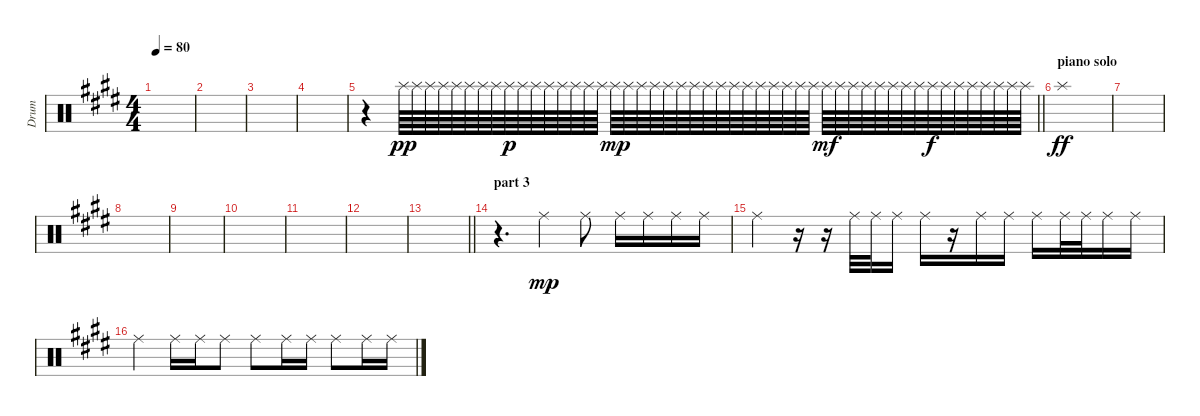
\track ("Drum" "Drum") {instrument percussion}
\staff {score}
\articulation defaults
\ts (4 4)
\tempo 80
\clef neutral
\ks e
|
|
|
|
\barLineRight lightlight
r.4 "Splash (hit)".64{dy pp} "Splash (hit)".64 "Splash (hit)".64 "Splash (hit)".64 "Splash (hit)".64 "Splash (hit)".64 "Splash (hit)".64 "Splash (hit)".64 "Splash (hit)".64{dy p} "Splash (hit)".64 "Splash (hit)".64 "Splash (hit)".64 "Splash (hit)".64 "Splash (hit)".64 "Splash (hit)".64 "Splash (hit)".64 "Splash (hit)".64{dy mp} "Splash (hit)".64 "Splash (hit)".64 "Splash (hit)".64 "Splash (hit)".64 "Splash (hit)".64 "Splash (hit)".64 "Splash (hit)".64 "Splash (hit)".64 "Splash (hit)".64 "Splash (hit)".64 "Splash (hit)".64 "Splash (hit)".64 "Splash (hit)".64 "Splash (hit)".64 "Splash (hit)".64 "Splash (hit)".64{dy mf} "Splash (hit)".64 "Splash (hit)".64 "Splash (hit)".64 "Splash (hit)".64 "Splash (hit)".64 "Splash (hit)".64 "Splash (hit)".64 "Splash (hit)".64{dy f} "Splash (hit)".64 "Splash (hit)".64 "Splash (hit)".64 "Splash (hit)".64 "Splash (hit)".64 "Splash (hit)".64 "Splash (hit)".64 |
\section ("" "piano solo")
"Splash (hit)".1{dy ff} |
|
|
|
|
|
|
\barLineRight lightlight
|
\section ("" "part 3")
r.4{d} "Ride (middle)".4{dy mp} "Ride (middle)".8 "Ride (middle)".16 "Ride (middle)".16 "Ride (middle)".16 "Ride (middle)".16 |
"Ride (middle)".4 r.16 r.16 "Ride (middle)".32 "Ride (middle)".32 "Ride (middle)".16 "Ride (middle)".16 r.16 "Ride (middle)".16 "Ride (middle)".16 "Ride (middle)".16 "Ride (middle)".32 "Ride (middle)".32 "Ride (middle)".16 "Ride (middle)".16 |
"Ride (middle)".4 "Ride (middle)".16 "Ride (middle)".16 "Ride (middle)".8 "Ride (middle)".8 "Ride (middle)".16 "Ride (middle)".16 "Ride (middle)".8 "Ride (middle)".16 "Ride (middle)".16
